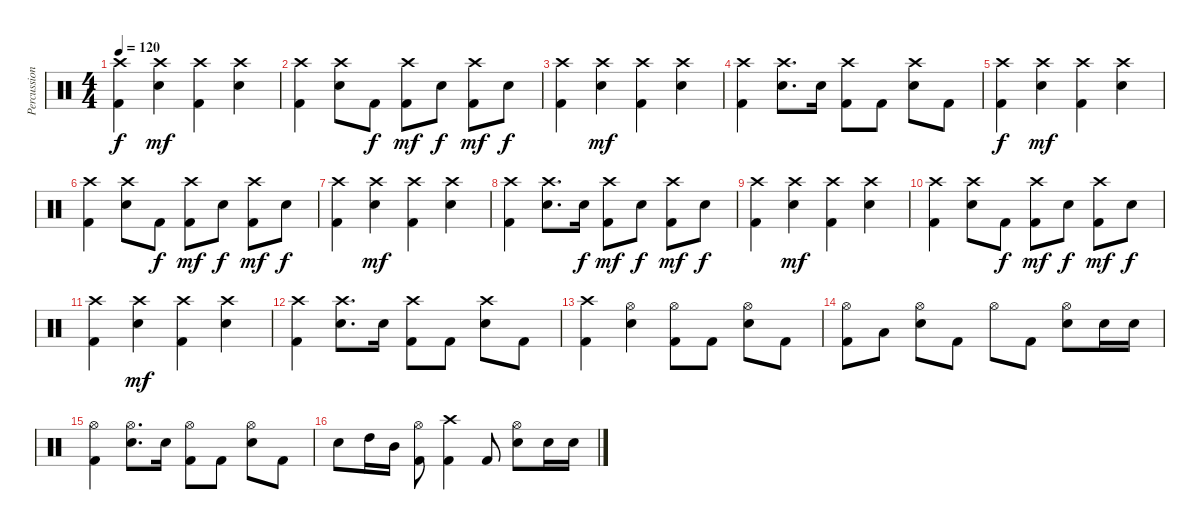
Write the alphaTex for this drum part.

\track ("Percussion" "Percussion") {instrument percussion}
\staff {score}
\articulation defaults
\ts (4 4)
\tempo 120
\clef neutral
\ks c
("Crash high (hit)" "Kick (hit) 2").4{dy f} ("Crash high (hit)" "Snare (hit) 2").4{dy mf} ("Crash high (hit)" "Kick (hit) 2").4 ("Crash high (hit)" "Snare (hit) 2").4 |
("Crash high (hit)" "Kick (hit) 2").4 ("Crash high (hit)" "Snare (hit) 2").8 "Kick (hit) 2".8{dy f} ("Crash high (hit)" "Kick (hit) 2").8{dy mf} "Snare (hit) 2".8{dy f} ("Crash high (hit)" "Kick (hit) 2").8{dy mf} "Snare (hit) 2".8{dy f} |
("Crash high (hit)" "Kick (hit) 2").4 ("Crash high (hit)" "Snare (hit) 2").4{dy mf} ("Crash high (hit)" "Kick (hit) 2").4 ("Crash high (hit)" "Snare (hit) 2").4 |
("Crash high (hit)" "Kick (hit) 2").4 ("Crash high (hit)" "Snare (hit) 2").8{d} "Snare (hit) 2".16 ("Crash high (hit)" "Kick (hit) 2").8 "Kick (hit) 2".8 ("Crash high (hit)" "Snare (hit) 2").8 "Kick (hit) 2".8 |
("Crash high (hit)" "Kick (hit) 2").4{dy f} ("Crash high (hit)" "Snare (hit) 2").4{dy mf} ("Crash high (hit)" "Kick (hit) 2").4 ("Crash high (hit)" "Snare (hit) 2").4 |
("Crash high (hit)" "Kick (hit) 2").4 ("Crash high (hit)" "Snare (hit) 2").8 "Kick (hit) 2".8{dy f} ("Crash high (hit)" "Kick (hit) 2").8{dy mf} "Snare (hit) 2".8{dy f} ("Crash high (hit)" "Kick (hit) 2").8{dy mf} "Snare (hit) 2".8{dy f} |
("Crash high (hit)" "Kick (hit) 2").4 ("Crash high (hit)" "Snare (hit) 2").4{dy mf} ("Crash high (hit)" "Kick (hit) 2").4 ("Crash high (hit)" "Snare (hit) 2").4 |
("Crash high (hit)" "Kick (hit) 2").4 ("Crash high (hit)" "Snare (hit) 2").8{d} "Snare (hit) 2".16{dy f} ("Crash high (hit)" "Kick (hit) 2").8{dy mf} "Snare (hit) 2".8{dy f} ("Crash high (hit)" "Kick (hit) 2").8{dy mf} "Snare (hit) 2".8{dy f} |
("Crash high (hit)" "Kick (hit) 2").4 ("Crash high (hit)" "Snare (hit) 2").4{dy mf} ("Crash high (hit)" "Kick (hit) 2").4 ("Crash high (hit)" "Snare (hit) 2").4 |
("Crash high (hit)" "Kick (hit) 2").4 ("Crash high (hit)" "Snare (hit) 2").8 "Kick (hit) 2".8{dy f} ("Crash high (hit)" "Kick (hit) 2").8{dy mf} "Snare (hit) 2".8{dy f} ("Crash high (hit)" "Kick (hit) 2").8{dy mf} "Snare (hit) 2".8{dy f} |
("Crash high (hit)" "Kick (hit) 2").4 ("Crash high (hit)" "Snare (hit) 2").4{dy mf} ("Crash high (hit)" "Kick (hit) 2").4 ("Crash high (hit)" "Snare (hit) 2").4 |
("Crash high (hit)" "Kick (hit) 2").4 ("Crash high (hit)" "Snare (hit) 2").8{d} "Snare (hit) 2".16 ("Crash high (hit)" "Kick (hit) 2").8 "Kick (hit) 2".8 ("Crash high (hit)" "Snare (hit) 2").8 "Kick (hit) 2".8 |
("Crash high (hit)" "Kick (hit) 2").4 ("Hi-Hat (open)" "Snare (hit) 2").4 ("Hi-Hat (open)" "Kick (hit) 2").8 "Kick (hit) 2".8 ("Hi-Hat (open)" "Snare (hit) 2").8 "Kick (hit) 2".8 |
("Hi-Hat (open)" "Kick (hit) 2").8 "Low Tom (hit)".8 ("Hi-Hat (open)" "Snare (hit) 2").8 "Kick (hit) 2".8 "Hi-Hat (open)".8 "Kick (hit) 2".8 ("Hi-Hat (open)" "Snare (hit) 2").8 "Snare (hit) 2".16 "Snare (hit) 2".16 |
("Hi-Hat (open)" "Kick (hit) 2").4 ("Hi-Hat (open)" "Snare (hit) 2").8{d} "Snare (hit) 2".16 ("Hi-Hat (open)" "Kick (hit) 2").8 "Kick (hit) 2".8 ("Hi-Hat (open)" "Snare (hit) 2").8 "Kick (hit) 2".8 |
"Snare (hit) 2".8 "High Tom (hit)".16 "Mid Tom (hit)".16 ("Hi-Hat (open)" "Kick (hit) 2").8 ("Crash high (hit)" "Kick (hit) 2").4 "Kick (hit) 2".8 ("Hi-Hat (open)" "Snare (hit) 2").8 "Snare (hit) 2".16 "Snare (hit) 2".16
